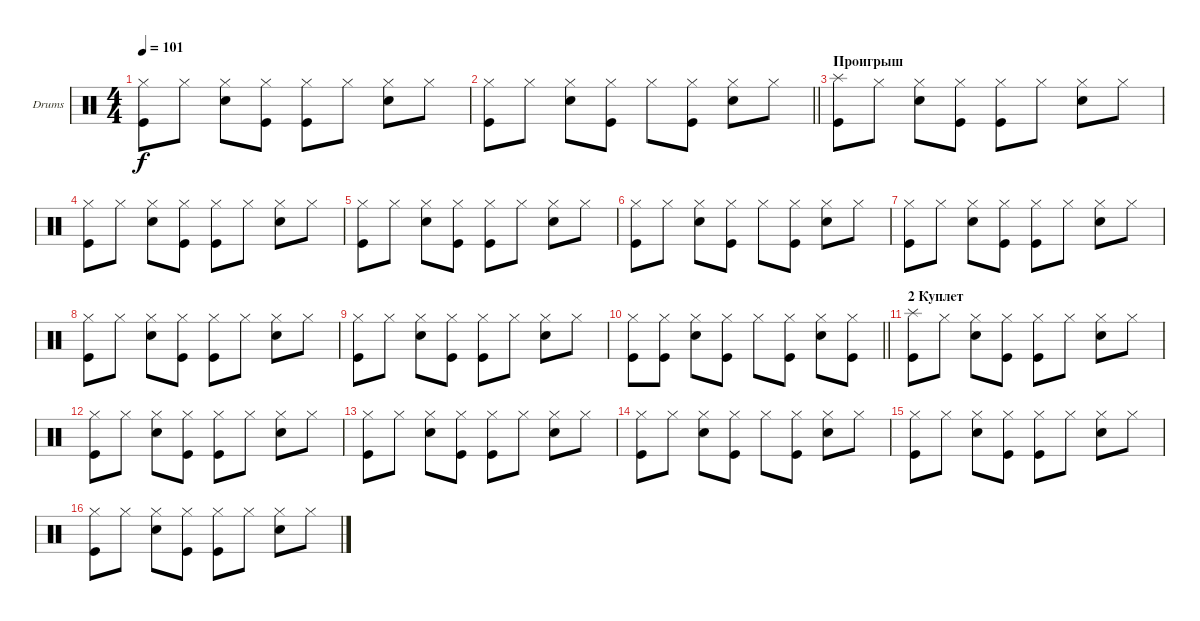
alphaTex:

\bracketExtendMode groupsimilarinstruments
\firstSystemTrackNameOrientation horizontal
\otherSystemsTrackNameOrientation horizontal
\track ("Г.Гурьянов (ударные)" "Drums") {instrument percussion}
\staff {score}
\articulation defaults
\ts (4 4)
\tempo 101
\clef neutral
\ks c
("Hi-Hat (closed)" "Kick (hit)").8{dy f} "Hi-Hat (closed)".8 ("Hi-Hat (closed)" "Snare (hit) 2").8 ("Hi-Hat (closed)" "Kick (hit)").8 ("Hi-Hat (closed)" "Kick (hit)").8 "Hi-Hat (closed)".8 ("Hi-Hat (closed)" "Snare (hit) 2").8 "Hi-Hat (closed)".8 |
\barLineRight lightlight
("Hi-Hat (closed)" "Kick (hit)").8 "Hi-Hat (closed)".8 ("Hi-Hat (closed)" "Snare (hit) 2").8 ("Hi-Hat (closed)" "Kick (hit)").8 "Hi-Hat (closed)".8 ("Hi-Hat (closed)" "Kick (hit)").8 ("Hi-Hat (closed)" "Snare (hit) 2").8 "Hi-Hat (closed)".8 |
\section ("" "Проигрыш")
("Splash (hit)" "Kick (hit)").8 "Hi-Hat (closed)".8 ("Hi-Hat (closed)" "Snare (hit) 2").8 ("Hi-Hat (closed)" "Kick (hit)").8 ("Hi-Hat (closed)" "Kick (hit)").8 "Hi-Hat (closed)".8 ("Hi-Hat (closed)" "Snare (hit) 2").8 "Hi-Hat (closed)".8 |
("Hi-Hat (closed)" "Kick (hit)").8 "Hi-Hat (closed)".8 ("Hi-Hat (closed)" "Snare (hit) 2").8 ("Hi-Hat (closed)" "Kick (hit)").8 ("Hi-Hat (closed)" "Kick (hit)").8 "Hi-Hat (closed)".8 ("Hi-Hat (closed)" "Snare (hit) 2").8 "Hi-Hat (closed)".8 |
("Hi-Hat (closed)" "Kick (hit)").8 "Hi-Hat (closed)".8 ("Hi-Hat (closed)" "Snare (hit) 2").8 ("Hi-Hat (closed)" "Kick (hit)").8 ("Hi-Hat (closed)" "Kick (hit)").8 "Hi-Hat (closed)".8 ("Hi-Hat (closed)" "Snare (hit) 2").8 "Hi-Hat (closed)".8 |
("Hi-Hat (closed)" "Kick (hit)").8 "Hi-Hat (closed)".8 ("Hi-Hat (closed)" "Snare (hit) 2").8 ("Hi-Hat (closed)" "Kick (hit)").8 "Hi-Hat (closed)".8 ("Hi-Hat (closed)" "Kick (hit)").8 ("Hi-Hat (closed)" "Snare (hit) 2").8 "Hi-Hat (closed)".8 |
("Hi-Hat (closed)" "Kick (hit)").8 "Hi-Hat (closed)".8 ("Hi-Hat (closed)" "Snare (hit) 2").8 ("Hi-Hat (closed)" "Kick (hit)").8 ("Hi-Hat (closed)" "Kick (hit)").8 "Hi-Hat (closed)".8 ("Hi-Hat (closed)" "Snare (hit) 2").8 "Hi-Hat (closed)".8 |
("Hi-Hat (closed)" "Kick (hit)").8 "Hi-Hat (closed)".8 ("Hi-Hat (closed)" "Snare (hit) 2").8 ("Hi-Hat (closed)" "Kick (hit)").8 ("Hi-Hat (closed)" "Kick (hit)").8 "Hi-Hat (closed)".8 ("Hi-Hat (closed)" "Snare (hit) 2").8 "Hi-Hat (closed)".8 |
("Hi-Hat (closed)" "Kick (hit)").8 "Hi-Hat (closed)".8 ("Hi-Hat (closed)" "Snare (hit) 2").8 ("Hi-Hat (closed)" "Kick (hit)").8 ("Hi-Hat (closed)" "Kick (hit)").8 "Hi-Hat (closed)".8 ("Hi-Hat (closed)" "Snare (hit) 2").8 "Hi-Hat (closed)".8 |
\barLineRight lightlight
("Hi-Hat (closed)" "Kick (hit)").8 ("Hi-Hat (closed)" "Kick (hit)").8 ("Hi-Hat (closed)" "Snare (hit) 2").8 ("Hi-Hat (closed)" "Kick (hit)").8 "Hi-Hat (closed)".8 ("Hi-Hat (closed)" "Kick (hit)").8 ("Hi-Hat (closed)" "Snare (hit) 2").8 ("Hi-Hat (closed)" "Kick (hit)").8 |
\section ("" "2 Куплет")
("Splash (hit)" "Kick (hit)").8 "Hi-Hat (closed)".8 ("Hi-Hat (closed)" "Snare (hit) 2").8 ("Hi-Hat (closed)" "Kick (hit)").8 ("Hi-Hat (closed)" "Kick (hit)").8 "Hi-Hat (closed)".8 ("Hi-Hat (closed)" "Snare (hit) 2").8 "Hi-Hat (closed)".8 |
("Hi-Hat (closed)" "Kick (hit)").8 "Hi-Hat (closed)".8 ("Hi-Hat (closed)" "Snare (hit) 2").8 ("Hi-Hat (closed)" "Kick (hit)").8 ("Hi-Hat (closed)" "Kick (hit)").8 "Hi-Hat (closed)".8 ("Hi-Hat (closed)" "Snare (hit) 2").8 "Hi-Hat (closed)".8 |
("Hi-Hat (closed)" "Kick (hit)").8 "Hi-Hat (closed)".8 ("Hi-Hat (closed)" "Snare (hit) 2").8 ("Hi-Hat (closed)" "Kick (hit)").8 ("Hi-Hat (closed)" "Kick (hit)").8 "Hi-Hat (closed)".8 ("Hi-Hat (closed)" "Snare (hit) 2").8 "Hi-Hat (closed)".8 |
("Hi-Hat (closed)" "Kick (hit)").8 "Hi-Hat (closed)".8 ("Hi-Hat (closed)" "Snare (hit) 2").8 ("Hi-Hat (closed)" "Kick (hit)").8 "Hi-Hat (closed)".8 ("Hi-Hat (closed)" "Kick (hit)").8 ("Hi-Hat (closed)" "Snare (hit) 2").8 "Hi-Hat (closed)".8 |
("Hi-Hat (closed)" "Kick (hit)").8 "Hi-Hat (closed)".8 ("Hi-Hat (closed)" "Snare (hit) 2").8 ("Hi-Hat (closed)" "Kick (hit)").8 ("Hi-Hat (closed)" "Kick (hit)").8 "Hi-Hat (closed)".8 ("Hi-Hat (closed)" "Snare (hit) 2").8 "Hi-Hat (closed)".8 |
("Hi-Hat (closed)" "Kick (hit)").8 "Hi-Hat (closed)".8 ("Hi-Hat (closed)" "Snare (hit) 2").8 ("Hi-Hat (closed)" "Kick (hit)").8 ("Hi-Hat (closed)" "Kick (hit)").8 "Hi-Hat (closed)".8 ("Hi-Hat (closed)" "Snare (hit) 2").8 "Hi-Hat (closed)".8
